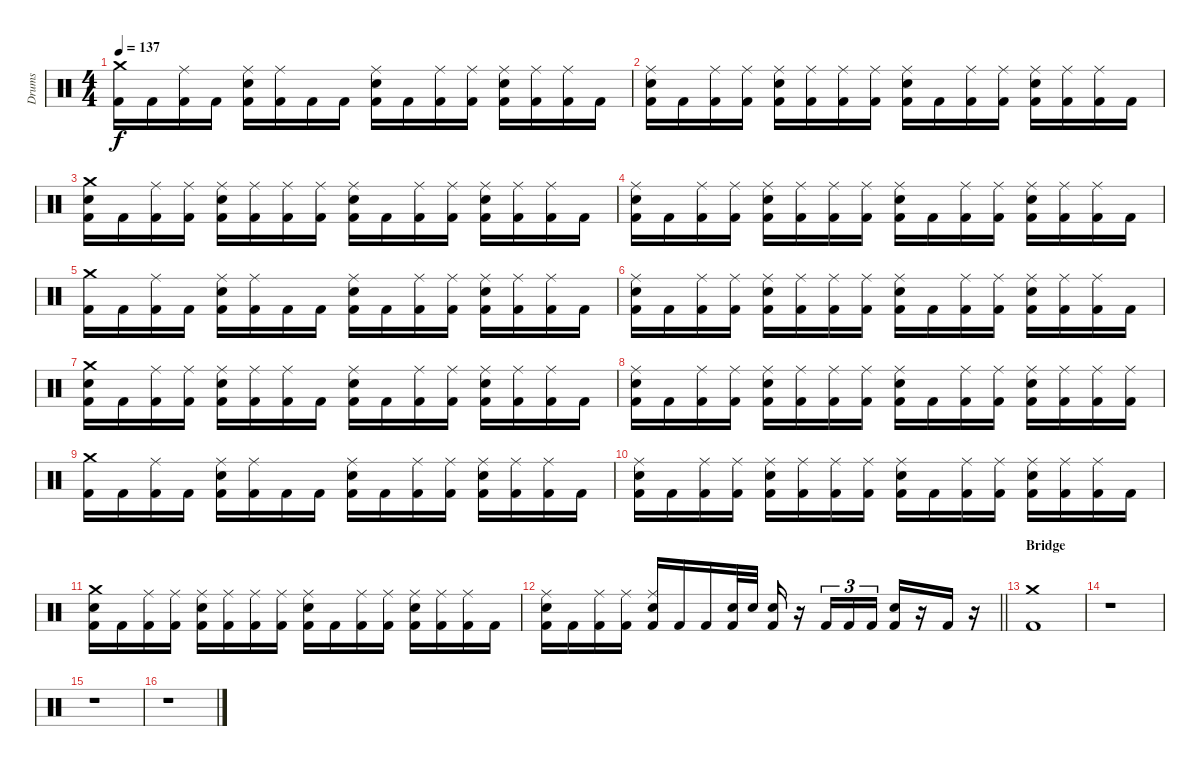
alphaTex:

\track ("Drums" "Drums") {instrument percussion}
\staff {score}
\articulation defaults
\ts (4 4)
\tempo 137
\clef neutral
\ks c
("Crash medium (hit)" "Kick (hit) 2").16{dy f} "Kick (hit) 2".16 ("Ride (middle)" "Kick (hit) 2").16 "Kick (hit) 2".16 ("Ride (middle)" "Electric Snare (hit)" "Kick (hit) 2").16 ("Ride (middle)" "Kick (hit) 2").16 "Kick (hit) 2".16 "Kick (hit) 2".16 ("Ride (middle)" "Electric Snare (hit)" "Kick (hit) 2").16 "Kick (hit) 2".16 ("Ride (middle)" "Kick (hit) 2").16 ("Ride (middle)" "Kick (hit) 2").16 ("Ride (middle)" "Electric Snare (hit)" "Kick (hit) 2").16 ("Ride (middle)" "Kick (hit) 2").16 ("Ride (middle)" "Kick (hit) 2").16 "Kick (hit) 2".16 |
("Ride (middle)" "Electric Snare (hit)" "Kick (hit) 2").16 "Kick (hit) 2".16 ("Ride (middle)" "Kick (hit) 2").16 ("Ride (middle)" "Kick (hit) 2").16 ("Ride (middle)" "Electric Snare (hit)" "Kick (hit) 2").16 ("Ride (middle)" "Kick (hit) 2").16 ("Ride (middle)" "Kick (hit) 2").16 ("Ride (middle)" "Kick (hit) 2").16 ("Ride (middle)" "Electric Snare (hit)" "Kick (hit) 2").16 "Kick (hit) 2".16 ("Ride (middle)" "Kick (hit) 2").16 ("Ride (middle)" "Kick (hit) 2").16 ("Ride (middle)" "Electric Snare (hit)" "Kick (hit) 2").16 ("Ride (middle)" "Kick (hit) 2").16 ("Ride (middle)" "Kick (hit) 2").16 "Kick (hit) 2".16 |
("Crash medium (hit)" "Electric Snare (hit)" "Kick (hit) 2").16 "Kick (hit) 2".16 ("Ride (middle)" "Kick (hit) 2").16 ("Ride (middle)" "Kick (hit) 2").16 ("Ride (middle)" "Electric Snare (hit)" "Kick (hit) 2").16 ("Ride (middle)" "Kick (hit) 2").16 ("Ride (middle)" "Kick (hit) 2").16 ("Ride (middle)" "Kick (hit) 2").16 ("Ride (middle)" "Electric Snare (hit)" "Kick (hit) 2").16 "Kick (hit) 2".16 ("Ride (middle)" "Kick (hit) 2").16 ("Ride (middle)" "Kick (hit) 2").16 ("Ride (middle)" "Electric Snare (hit)" "Kick (hit) 2").16 ("Ride (middle)" "Kick (hit) 2").16 ("Ride (middle)" "Kick (hit) 2").16 "Kick (hit) 2".16 |
("Ride (middle)" "Electric Snare (hit)" "Kick (hit) 2").16 "Kick (hit) 2".16 ("Ride (middle)" "Kick (hit) 2").16 ("Ride (middle)" "Kick (hit) 2").16 ("Ride (middle)" "Electric Snare (hit)" "Kick (hit) 2").16 ("Ride (middle)" "Kick (hit) 2").16 ("Ride (middle)" "Kick (hit) 2").16 ("Ride (middle)" "Kick (hit) 2").16 ("Ride (middle)" "Electric Snare (hit)" "Kick (hit) 2").16 "Kick (hit) 2".16 ("Ride (middle)" "Kick (hit) 2").16 ("Ride (middle)" "Kick (hit) 2").16 ("Ride (middle)" "Electric Snare (hit)" "Kick (hit) 2").16 ("Ride (middle)" "Kick (hit) 2").16 ("Ride (middle)" "Kick (hit) 2").16 "Kick (hit) 2".16 |
("Crash medium (hit)" "Kick (hit) 2").16 "Kick (hit) 2".16 ("Ride (middle)" "Kick (hit) 2").16 "Kick (hit) 2".16 ("Ride (middle)" "Electric Snare (hit)" "Kick (hit) 2").16 ("Ride (middle)" "Kick (hit) 2").16 "Kick (hit) 2".16 "Kick (hit) 2".16 ("Ride (middle)" "Electric Snare (hit)" "Kick (hit) 2").16 "Kick (hit) 2".16 ("Ride (middle)" "Kick (hit) 2").16 ("Ride (middle)" "Kick (hit) 2").16 ("Ride (middle)" "Electric Snare (hit)" "Kick (hit) 2").16 ("Ride (middle)" "Kick (hit) 2").16 ("Ride (middle)" "Kick (hit) 2").16 "Kick (hit) 2".16 |
("Ride (middle)" "Electric Snare (hit)" "Kick (hit) 2").16 "Kick (hit) 2".16 ("Ride (middle)" "Kick (hit) 2").16 ("Ride (middle)" "Kick (hit) 2").16 ("Ride (middle)" "Electric Snare (hit)" "Kick (hit) 2").16 ("Ride (middle)" "Kick (hit) 2").16 ("Ride (middle)" "Kick (hit) 2").16 ("Ride (middle)" "Kick (hit) 2").16 ("Ride (middle)" "Electric Snare (hit)" "Kick (hit) 2").16 "Kick (hit) 2".16 ("Ride (middle)" "Kick (hit) 2").16 ("Ride (middle)" "Kick (hit) 2").16 ("Ride (middle)" "Electric Snare (hit)" "Kick (hit) 2").16 ("Ride (middle)" "Kick (hit) 2").16 ("Ride (middle)" "Kick (hit) 2").16 "Kick (hit) 2".16 |
("Crash medium (hit)" "Electric Snare (hit)" "Kick (hit) 2").16 "Kick (hit) 2".16 ("Ride (middle)" "Kick (hit) 2").16 ("Ride (middle)" "Kick (hit) 2").16 ("Ride (middle)" "Electric Snare (hit)" "Kick (hit) 2").16 ("Ride (middle)" "Kick (hit) 2").16 ("Ride (middle)" "Kick (hit) 2").16 "Kick (hit) 2".16 ("Ride (middle)" "Electric Snare (hit)" "Kick (hit) 2").16 "Kick (hit) 2".16 ("Ride (middle)" "Kick (hit) 2").16 ("Ride (middle)" "Kick (hit) 2").16 ("Ride (middle)" "Electric Snare (hit)" "Kick (hit) 2").16 ("Ride (middle)" "Kick (hit) 2").16 ("Ride (middle)" "Kick (hit) 2").16 "Kick (hit) 2".16 |
("Ride (middle)" "Electric Snare (hit)" "Kick (hit) 2").16 "Kick (hit) 2".16 ("Ride (middle)" "Kick (hit) 2").16 ("Ride (middle)" "Kick (hit) 2").16 ("Ride (middle)" "Electric Snare (hit)" "Kick (hit) 2").16 ("Ride (middle)" "Kick (hit) 2").16 ("Ride (middle)" "Kick (hit) 2").16 ("Ride (middle)" "Kick (hit) 2").16 ("Ride (middle)" "Electric Snare (hit)" "Kick (hit) 2").16 "Kick (hit) 2".16 ("Ride (middle)" "Kick (hit) 2").16 ("Ride (middle)" "Kick (hit) 2").16 ("Ride (middle)" "Electric Snare (hit)" "Kick (hit) 2").16 ("Ride (middle)" "Kick (hit) 2").16 ("Ride (middle)" "Kick (hit) 2").16 ("Ride (middle)" "Kick (hit) 2").16 |
("Crash medium (hit)" "Kick (hit) 2").16 "Kick (hit) 2".16 ("Ride (middle)" "Kick (hit) 2").16 "Kick (hit) 2".16 ("Ride (middle)" "Electric Snare (hit)" "Kick (hit) 2").16 ("Ride (middle)" "Kick (hit) 2").16 "Kick (hit) 2".16 "Kick (hit) 2".16 ("Ride (middle)" "Electric Snare (hit)" "Kick (hit) 2").16 "Kick (hit) 2".16 ("Ride (middle)" "Kick (hit) 2").16 ("Ride (middle)" "Kick (hit) 2").16 ("Ride (middle)" "Electric Snare (hit)" "Kick (hit) 2").16 ("Ride (middle)" "Kick (hit) 2").16 ("Ride (middle)" "Kick (hit) 2").16 "Kick (hit) 2".16 |
("Ride (middle)" "Electric Snare (hit)" "Kick (hit) 2").16 "Kick (hit) 2".16 ("Ride (middle)" "Kick (hit) 2").16 ("Ride (middle)" "Kick (hit) 2").16 ("Ride (middle)" "Electric Snare (hit)" "Kick (hit) 2").16 ("Ride (middle)" "Kick (hit) 2").16 ("Ride (middle)" "Kick (hit) 2").16 ("Ride (middle)" "Kick (hit) 2").16 ("Ride (middle)" "Electric Snare (hit)" "Kick (hit) 2").16 "Kick (hit) 2".16 ("Ride (middle)" "Kick (hit) 2").16 ("Ride (middle)" "Kick (hit) 2").16 ("Ride (middle)" "Electric Snare (hit)" "Kick (hit) 2").16 ("Ride (middle)" "Kick (hit) 2").16 ("Ride (middle)" "Kick (hit) 2").16 "Kick (hit) 2".16 |
("Crash medium (hit)" "Electric Snare (hit)" "Kick (hit) 2").16 "Kick (hit) 2".16 ("Ride (middle)" "Kick (hit) 2").16 ("Ride (middle)" "Kick (hit) 2").16 ("Ride (middle)" "Electric Snare (hit)" "Kick (hit) 2").16 ("Ride (middle)" "Kick (hit) 2").16 ("Ride (middle)" "Kick (hit) 2").16 ("Ride (middle)" "Kick (hit) 2").16 ("Ride (middle)" "Electric Snare (hit)" "Kick (hit) 2").16 "Kick (hit) 2".16 ("Ride (middle)" "Kick (hit) 2").16 ("Ride (middle)" "Kick (hit) 2").16 ("Ride (middle)" "Electric Snare (hit)" "Kick (hit) 2").16 ("Ride (middle)" "Kick (hit) 2").16 ("Ride (middle)" "Kick (hit) 2").16 "Kick (hit) 2".16 |
\barLineRight lightlight
("Ride (middle)" "Electric Snare (hit)" "Kick (hit) 2").16 "Kick (hit) 2".16 ("Ride (middle)" "Kick (hit) 2").16 ("Ride (middle)" "Kick (hit) 2").16 ("Ride (middle)" "Electric Snare (hit)" "Kick (hit) 2").16 "Kick (hit) 2".16 "Kick (hit) 2".16 ("Electric Snare (hit)" "Kick (hit) 2").32 "Electric Snare (hit)".32 ("Electric Snare (hit)" "Kick (hit) 2").16 r.16 "Kick (hit) 2".16{tu (3 2)} "Kick (hit) 2".16{tu (3 2)} "Kick (hit) 2".16{tu (3 2)} ("Electric Snare (hit)" "Kick (hit) 2").16 r.16 "Kick (hit) 2".16 r.16 |
\section ("" "Bridge")
("Crash medium (hit)" "Kick (hit) 2").1 |
r.1 |
r.1 |
r.1
